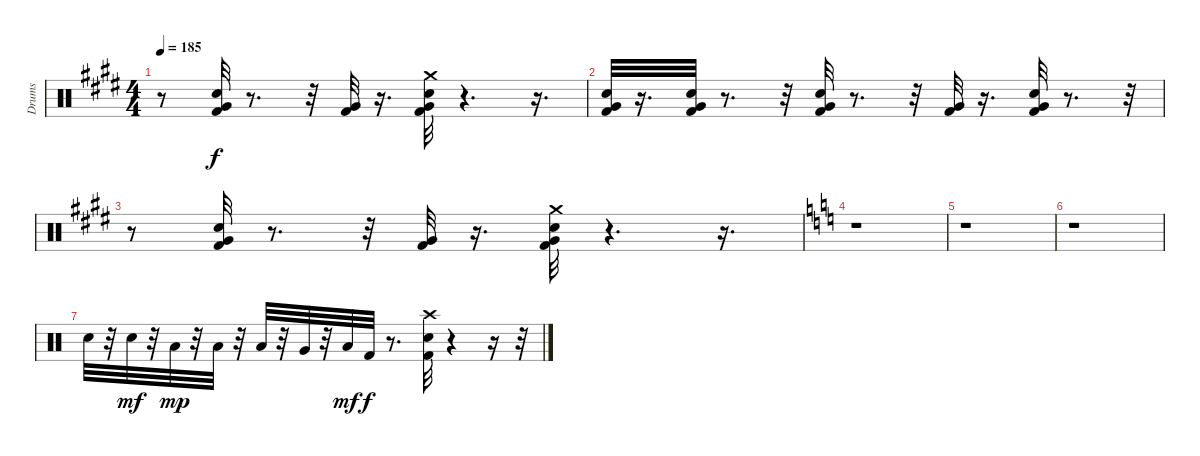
\track ("Drums" "Drums") {instrument percussion}
\staff {score}
\articulation defaults
\ts (4 4)
\tempo 185
\clef neutral
\ks c#minor
r.8{dy f} ("Kick (hit) 2" "Electric Snare (hit)" "Very Low Tom (hit)").32 r.8{d} r.32 ("Very Low Tom (hit)" "Kick (hit) 2").32 r.16{d} ("Crash medium (hit)" "Very Low Tom (hit)" "Electric Snare (hit)" "Kick (hit) 2").32 r.4{d} r.16{d} |
\ks e
("Very Low Tom (hit)" "Kick (hit) 2" "Electric Snare (hit)").32 r.16{d} ("Very Low Tom (hit)" "Kick (hit) 2" "Electric Snare (hit)").32 r.8{d} r.32 ("Very Low Tom (hit)" "Kick (hit) 2" "Electric Snare (hit)").32 r.8{d} r.32 ("Very Low Tom (hit)" "Kick (hit) 2").32 r.16{d} ("Very Low Tom (hit)" "Kick (hit) 2" "Electric Snare (hit)").32 r.8{d} r.32 |
\ks c#minor
r.8 ("Very Low Tom (hit)" "Kick (hit) 2" "Electric Snare (hit)").32 r.8{d} r.32 ("Very Low Tom (hit)" "Kick (hit) 2").32 r.16{d} ("Very Low Tom (hit)" "Crash medium (hit)" "Kick (hit) 2" "Electric Snare (hit)").32 r.4{d} r.16{d} |
\ks c
r.1 |
r.1 |
r.1 |
"Electric Snare (hit)".32 r.32 "Electric Snare (hit)".32{dy mf} r.32 "Low Tom (hit)".32{dy mp} r.32 "Low Tom (hit)".32 r.32 "Low Tom (hit)".32 r.32 "Very Low Tom (hit)".32 r.32 "Low Floor Tom (hit)".32{dy mf} "Kick (hit) 2".32{dy f} r.8{d} ("Kick (hit) 2" "Crash high (hit)" "Electric Snare (hit)").32 r.4 r.16 r.32
